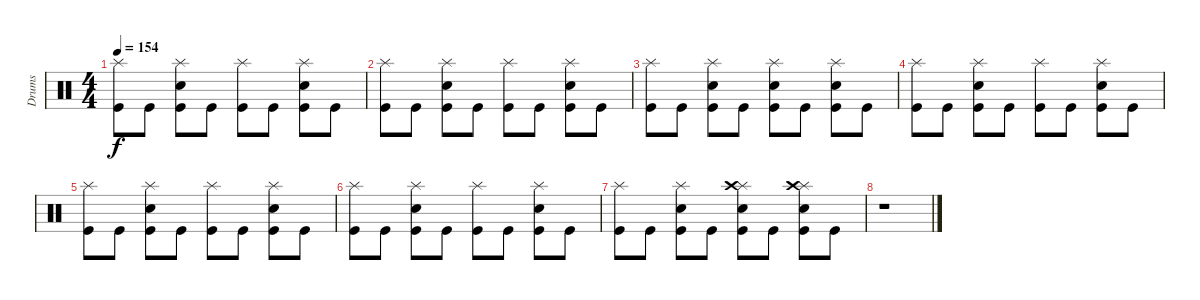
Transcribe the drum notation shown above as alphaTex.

\track ("Drums" "Drums") {instrument percussion}
\staff {score}
\articulation defaults
\ts (4 4)
\tempo 154
\clef neutral
\ks c
("Splash (hit)" "Kick (hit)").8{dy f} "Kick (hit)".8 ("Splash (hit)" "Snare (hit) 2" "Kick (hit)").8 "Kick (hit)".8 ("Splash (hit)" "Kick (hit)").8 "Kick (hit)".8 ("Splash (hit)" "Snare (hit) 2" "Kick (hit)").8 "Kick (hit)".8 |
("Splash (hit)" "Kick (hit)").8 "Kick (hit)".8 ("Splash (hit)" "Snare (hit) 2" "Kick (hit)").8 "Kick (hit)".8 ("Splash (hit)" "Kick (hit)").8 "Kick (hit)".8 ("Splash (hit)" "Snare (hit) 2" "Kick (hit)").8 "Kick (hit)".8 |
("Splash (hit)" "Kick (hit)").8 "Kick (hit)".8 ("Splash (hit)" "Snare (hit) 2" "Kick (hit)").8 "Kick (hit)".8 ("Splash (hit)" "Kick (hit)" "Snare (hit) 2").8 "Kick (hit)".8 ("Splash (hit)" "Snare (hit) 2" "Kick (hit)").8 "Kick (hit)".8 |
("Splash (hit)" "Kick (hit)").8 "Kick (hit)".8 ("Splash (hit)" "Snare (hit) 2" "Kick (hit)").8 "Kick (hit)".8 ("Splash (hit)" "Kick (hit)").8 "Kick (hit)".8 ("Splash (hit)" "Snare (hit) 2" "Kick (hit)").8 "Kick (hit)".8 |
("Splash (hit)" "Kick (hit)").8 "Kick (hit)".8 ("Splash (hit)" "Snare (hit) 2" "Kick (hit)").8 "Kick (hit)".8 ("Splash (hit)" "Kick (hit)").8 "Kick (hit)".8 ("Splash (hit)" "Snare (hit) 2" "Kick (hit)").8 "Kick (hit)".8 |
("Splash (hit)" "Kick (hit)").8 "Kick (hit)".8 ("Splash (hit)" "Snare (hit) 2" "Kick (hit)").8 "Kick (hit)".8 ("Splash (hit)" "Kick (hit)").8 "Kick (hit)".8 ("Splash (hit)" "Snare (hit) 2" "Kick (hit)").8 "Kick (hit)".8 |
("Splash (hit)" "Kick (hit)").8 "Kick (hit)".8 ("Splash (hit)" "Snare (hit) 2" "Kick (hit)").8 "Kick (hit)".8 ("Splash (hit)" "Kick (hit)" "Crash high (hit)" "Snare (hit) 2").8 "Kick (hit)".8 ("Splash (hit)" "Snare (hit) 2" "Kick (hit)" "Crash high (hit)").8 "Kick (hit)".8 |
r.1
